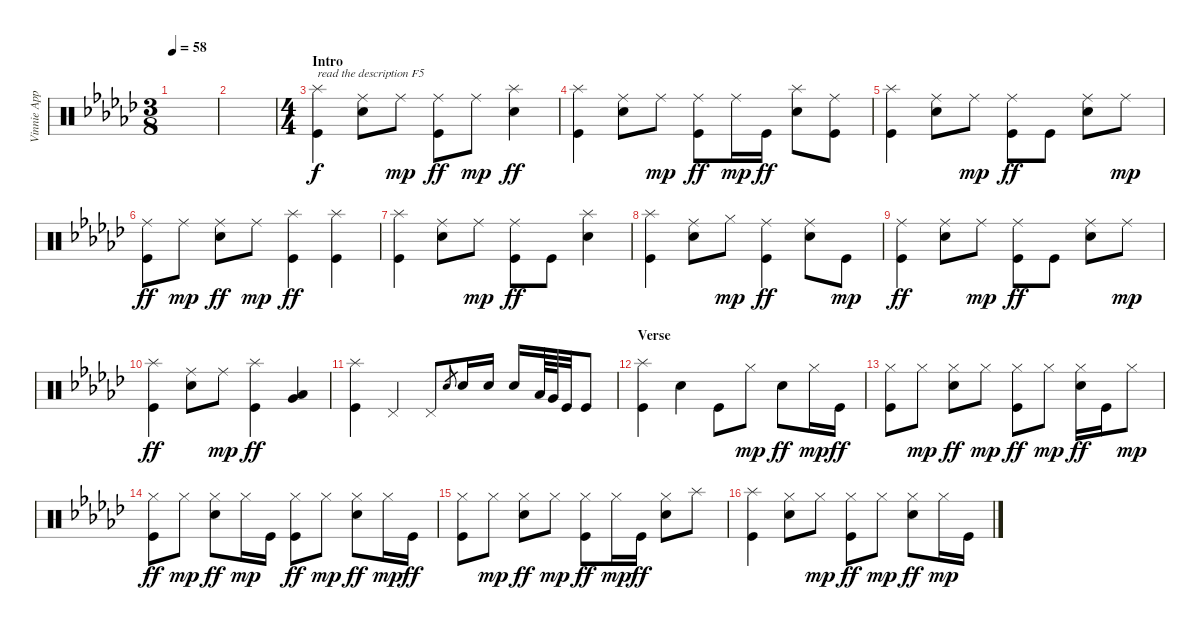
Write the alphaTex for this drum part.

\track ("Vinnie Appice" "Vinnie App") {instrument percussion}
\staff {score}
\articulation defaults
\ts (3 8)
\tempo 58
\clef neutral
\ks ebminor
|
|
\ts (4 4)
\section ("" "Intro")
("Kick (hit)" "Splash (hit)").4{txt "read the description F5"} ("Snare (hit) 2" "Ride (middle)").8 "Ride (middle)".8{dy mp} ("Kick (hit)" "Ride (middle)").8{dy ff} "Ride (middle)".8{dy mp} ("Splash (hit)" "Snare (hit) 2").4{dy ff} |
("Kick (hit)" "Splash (hit)").4 ("Snare (hit) 2" "Ride (middle)").8 "Ride (middle)".8{dy mp} ("Kick (hit)" "Ride (middle)").8{dy ff} "Ride (middle)".16{dy mp} "Kick (hit)".16{dy ff} ("Snare (hit) 2" "Splash (hit)").8 ("Kick (hit)" "Ride (middle)").8 |
("Kick (hit)" "Splash (hit)").4 ("Snare (hit) 2" "Ride (middle)").8 "Ride (middle)".8{dy mp} ("Ride (middle)" "Kick (hit)").8{dy ff} "Kick (hit)".8 ("Ride (middle)" "Snare (hit) 2").8 "Ride (middle)".8{dy mp} |
("Kick (hit)" "Ride (middle)").8{dy ff} "Ride (middle)".8{dy mp} ("Snare (hit) 2" "Ride (middle)").8{dy ff} "Ride (middle)".8{dy mp} ("Kick (hit)" "Splash (hit)").4{dy ff} ("Kick (hit)" "Splash (hit)").4 |
("Kick (hit)" "Splash (hit)").4 ("Snare (hit) 2" "Ride (middle)").8 "Ride (middle)".8{dy mp} ("Kick (hit)" "Ride (middle)").8{dy ff} "Kick (hit)".8 ("Splash (hit)" "Snare (hit) 2").4 |
("Kick (hit)" "Splash (hit)").4 ("Snare (hit) 2" "Ride (middle)").8 "Hi-Hat (closed)".8{dy mp} ("Ride (middle)" "Kick (hit)").4{dy ff} ("Ride (middle)" "Snare (hit) 2").8 "Kick (hit)".8{dy mp} |
("Kick (hit)" "Ride (middle)").4{dy ff} ("Ride (middle)" "Snare (hit) 2").8 "Ride (middle)".8{dy mp} ("Ride (middle)" "Kick (hit)").8{dy ff} "Kick (hit)".8 ("Ride (middle)" "Snare (hit) 2").8 "Ride (middle)".8{dy mp} |
("Splash (hit)" "Kick (hit)").4{dy ff} ("Ride (middle)" "Snare (hit) 2").8 "Ride (middle)".8{dy mp} ("Kick (hit)" "Splash (hit)").4{dy ff} ("Low Floor Tom (hit)" "Very Low Tom (hit)").4 |
("Kick (hit)" "Splash (hit)").4 "Pedal Hi-Hat (hit)".4 "Pedal Hi-Hat (hit)".8 "Snare (hit)".8{gr} "Snare (hit) 2".16 "Snare (hit) 2".16 "Snare (hit) 2".16 "Low Tom (hit)".64 "Very Low Tom (hit)".64 "Kick (hit)".32 "Kick (hit)".8 |
\section ("" "Verse")
("Kick (hit)" "Splash (hit)").4 "Snare (hit) 2".4 "Kick (hit)".8 "Hi-Hat (closed)".8{dy mp} "Snare (hit) 2".8{dy ff} "Hi-Hat (closed)".16{dy mp} "Kick (hit)".16{dy ff} |
("Kick (hit)" "Hi-Hat (closed)").8 "Hi-Hat (closed)".8{dy mp} ("Snare (hit) 2" "Hi-Hat (closed)").8{dy ff} "Hi-Hat (closed)".8{dy mp} ("Kick (hit)" "Hi-Hat (closed)").8{dy ff} "Hi-Hat (closed)".8{dy mp} ("Snare (hit) 2" "Hi-Hat (closed)").16{dy ff} "Kick (hit)".16 "Hi-Hat (closed)".8{dy mp} |
("Kick (hit)" "Hi-Hat (closed)").8{dy ff} "Hi-Hat (closed)".8{dy mp} ("Snare (hit) 2" "Hi-Hat (closed)").8{dy ff} "Hi-Hat (closed)".16{dy mp} "Kick (hit)".16 ("Kick (hit)" "Hi-Hat (closed)").8{dy ff} "Hi-Hat (closed)".8{dy mp} ("Snare (hit) 2" "Hi-Hat (closed)").8{dy ff} "Hi-Hat (closed)".16{dy mp} "Kick (hit)".16{dy ff} |
("Kick (hit)" "Hi-Hat (closed)").8 "Hi-Hat (closed)".8{dy mp} ("Snare (hit) 2" "Hi-Hat (closed)").8{dy ff} "Hi-Hat (closed)".8{dy mp} ("Kick (hit)" "Hi-Hat (closed)").8{dy ff} "Hi-Hat (closed)".16{dy mp} "Kick (hit)".16{dy ff} ("Hi-Hat (closed)" "Snare (hit) 2").8 "Splash (hit)".8 |
("Kick (hit)" "Splash (hit)").4 ("Snare (hit) 2" "Hi-Hat (closed)").8 "Hi-Hat (closed)".8{dy mp} ("Kick (hit)" "Hi-Hat (closed)").8{dy ff} "Hi-Hat (closed)".8{dy mp} ("Snare (hit) 2" "Hi-Hat (closed)").8{dy ff} "Hi-Hat (closed)".16{dy mp} "Kick (hit)".16
